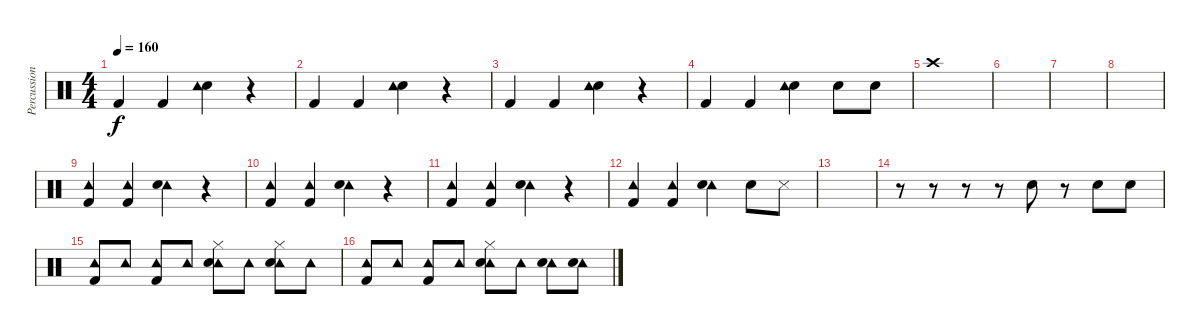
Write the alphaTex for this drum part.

\track ("Percussion" "Percussion") {instrument percussion}
\staff {score}
\articulation defaults
\ts (4 4)
\tempo 160
\clef neutral
\ks c "Kick (hit) 2".4{dy f} "Kick (hit) 2".4
("Snare (hit) 2" "Tambourine (hit)").4 r.4 |
"Kick (hit) 2".4 "Kick (hit) 2".4 ("Snare (hit) 2" "Tambourine (hit)").4 r.4 |
"Kick (hit) 2".4 "Kick (hit) 2".4 ("Snare (hit) 2" "Tambourine (hit)").4 r.4 |
"Kick (hit) 2".4 "Kick (hit) 2".4 ("Snare (hit) 2" "Tambourine (hit)").4 "Snare (hit) 2".8 "Snare (hit) 2".8 |
"Crash high (hit)".1 |
|
|
|
("Tambourine (hit)" "Kick (hit) 2").4 ("Tambourine (hit)" "Kick (hit) 2").4 ("Tambourine (hit)" "Snare (hit) 2").4 r.4 |
("Tambourine (hit)" "Kick (hit) 2").4 ("Tambourine (hit)" "Kick (hit) 2").4 ("Tambourine (hit)" "Snare (hit) 2").4 r.4 |
("Tambourine (hit)" "Kick (hit) 2").4 ("Tambourine (hit)" "Kick (hit) 2").4 ("Tambourine (hit)" "Snare (hit) 2").4 r.4 |
("Tambourine (hit)" "Kick (hit) 2").4 ("Tambourine (hit)" "Kick (hit) 2").4 ("Tambourine (hit)" "Snare (hit) 2").4 "Snare (hit) 2".8 "Snare (side stick) 3".8 |
|
r.8 r.8 r.8 r.8 "Snare (hit) 2".8 r.8 "Snare (hit) 2".8 "Snare (hit) 2".8 |
("Tambourine (hit)" "Kick (hit) 2").8 "Tambourine (hit)".8 ("Tambourine (hit)" "Kick (hit) 2").8 "Tambourine (hit)".8 ("Tambourine (hit)" "Snare (hit) 2" "Hi-Hat (closed)").8 "Tambourine (hit)".8 ("Tambourine (hit)" "Snare (hit) 2" "Hi-Hat (closed)").8 "Tambourine (hit)".8 |
("Tambourine (hit)" "Kick (hit) 2").8 "Tambourine (hit)".8 ("Tambourine (hit)" "Kick (hit) 2").8 "Tambourine (hit)".8 ("Tambourine (hit)" "Snare (hit) 2" "Hi-Hat (closed)").8 "Tambourine (hit)".8 ("Tambourine (hit)" "Snare (hit) 2").8 ("Tambourine (hit)" "Snare (hit) 2").8
